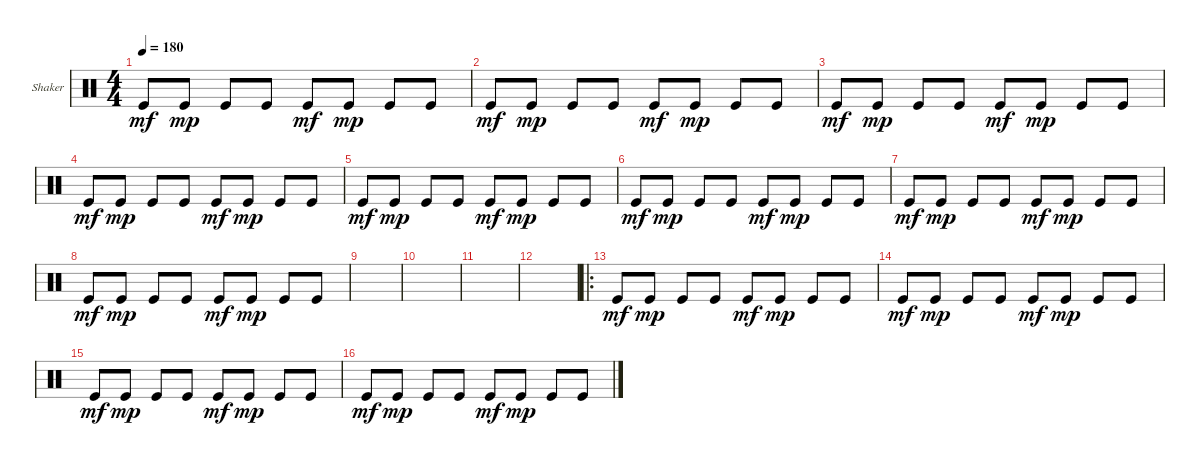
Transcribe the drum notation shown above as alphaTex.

\defaultSystemsLayout 4
\bracketExtendMode groupsimilarinstruments
\firstSystemTrackNameOrientation horizontal
\otherSystemsTrackNameOrientation horizontal
\track ("Shaker" "Shaker") {instrument percussion}
\staff {score}
\articulation defaults
\ts (4 4)
\tempo 180
\clef neutral
\ks c "Kick (hit)".8{dy mf} "Kick (hit)".8{dy mp} "Kick (hit)".8 "Kick (hit)".8 "Kick (hit)".8{dy mf} "Kick (hit)".8{dy mp} "Kick (hit)".8 "Kick (hit)".8
|
"Kick (hit)".8{dy mf} "Kick (hit)".8{dy mp} "Kick (hit)".8 "Kick (hit)".8 "Kick (hit)".8{dy mf} "Kick (hit)".8{dy mp} "Kick (hit)".8 "Kick (hit)".8 |
"Kick (hit)".8{dy mf} "Kick (hit)".8{dy mp} "Kick (hit)".8 "Kick (hit)".8 "Kick (hit)".8{dy mf} "Kick (hit)".8{dy mp} "Kick (hit)".8 "Kick (hit)".8 |
"Kick (hit)".8{dy mf} "Kick (hit)".8{dy mp} "Kick (hit)".8 "Kick (hit)".8 "Kick (hit)".8{dy mf} "Kick (hit)".8{dy mp} "Kick (hit)".8 "Kick (hit)".8 |
"Kick (hit)".8{dy mf} "Kick (hit)".8{dy mp} "Kick (hit)".8 "Kick (hit)".8 "Kick (hit)".8{dy mf} "Kick (hit)".8{dy mp} "Kick (hit)".8 "Kick (hit)".8 |
"Kick (hit)".8{dy mf} "Kick (hit)".8{dy mp} "Kick (hit)".8 "Kick (hit)".8 "Kick (hit)".8{dy mf} "Kick (hit)".8{dy mp} "Kick (hit)".8 "Kick (hit)".8 |
"Kick (hit)".8{dy mf} "Kick (hit)".8{dy mp} "Kick (hit)".8 "Kick (hit)".8 "Kick (hit)".8{dy mf} "Kick (hit)".8{dy mp} "Kick (hit)".8 "Kick (hit)".8 |
"Kick (hit)".8{dy mf} "Kick (hit)".8{dy mp} "Kick (hit)".8 "Kick (hit)".8 "Kick (hit)".8{dy mf} "Kick (hit)".8{dy mp} "Kick (hit)".8 "Kick (hit)".8 |
|
|
|
|
\ro "Kick (hit)".8{dy mf} "Kick (hit)".8{dy mp} "Kick (hit)".8 "Kick (hit)".8 "Kick (hit)".8{dy mf} "Kick (hit)".8{dy mp} "Kick (hit)".8 "Kick (hit)".8
|
"Kick (hit)".8{dy mf} "Kick (hit)".8{dy mp} "Kick (hit)".8 "Kick (hit)".8 "Kick (hit)".8{dy mf} "Kick (hit)".8{dy mp} "Kick (hit)".8 "Kick (hit)".8 |
"Kick (hit)".8{dy mf} "Kick (hit)".8{dy mp} "Kick (hit)".8 "Kick (hit)".8 "Kick (hit)".8{dy mf} "Kick (hit)".8{dy mp} "Kick (hit)".8 "Kick (hit)".8 |
"Kick (hit)".8{dy mf} "Kick (hit)".8{dy mp} "Kick (hit)".8 "Kick (hit)".8 "Kick (hit)".8{dy mf} "Kick (hit)".8{dy mp} "Kick (hit)".8 "Kick (hit)".8
